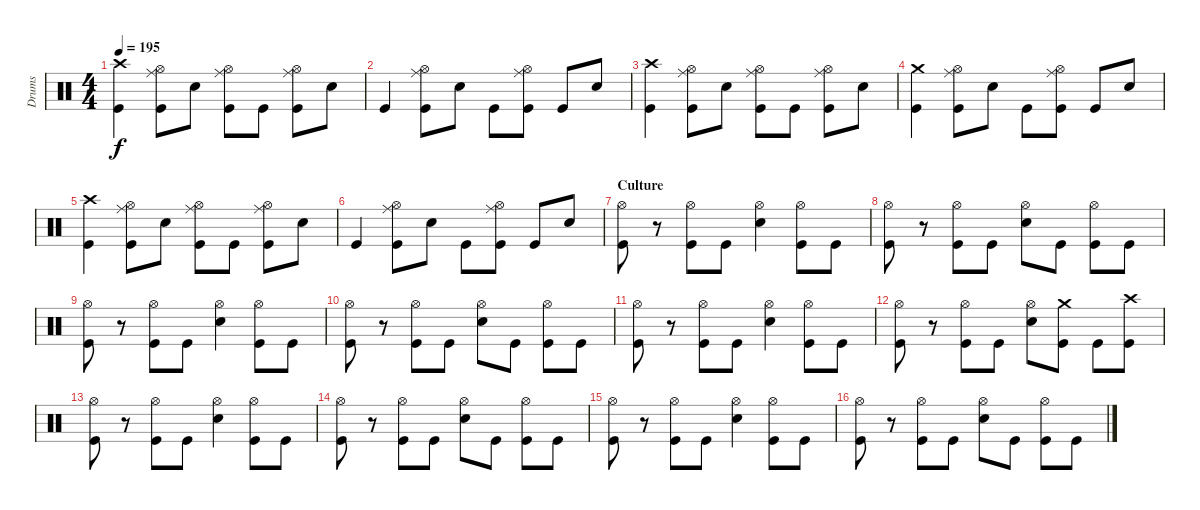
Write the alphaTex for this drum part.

\track ("Drums" "Drums") {instrument percussion}
\staff {score}
\articulation defaults
\ts (4 4)
\tempo 195
\clef neutral
\ks c
("Crash high (hit)" "Kick (hit)").4{dy f} ("Hi-Hat (open)" "Ride (middle)" "Kick (hit)").8 "Electric Snare (hit)".8 ("Hi-Hat (open)" "Ride (middle)" "Kick (hit)").8 "Kick (hit)".8 ("Hi-Hat (open)" "Ride (middle)" "Kick (hit)").8 "Electric Snare (hit)".8 |
"Kick (hit)".4 ("Hi-Hat (open)" "Ride (middle)" "Kick (hit)").8 "Electric Snare (hit)".8 "Kick (hit)".8 ("Hi-Hat (open)" "Ride (middle)" "Kick (hit)").8 "Kick (hit)".8 "Electric Snare (hit)".8 |
("Crash high (hit)" "Kick (hit)").4 ("Hi-Hat (open)" "Ride (middle)" "Kick (hit)").8 "Electric Snare (hit)".8 ("Hi-Hat (open)" "Ride (middle)" "Kick (hit)").8 "Kick (hit)".8 ("Hi-Hat (open)" "Ride (middle)" "Kick (hit)").8 "Electric Snare (hit)".8 |
("Crash medium (hit)" "Kick (hit)").4 ("Hi-Hat (open)" "Ride (middle)" "Kick (hit)").8 "Electric Snare (hit)".8 "Kick (hit)".8 ("Hi-Hat (open)" "Ride (middle)" "Kick (hit)").8 "Kick (hit)".8 "Electric Snare (hit)".8 |
("Crash high (hit)" "Kick (hit)").4 ("Hi-Hat (open)" "Ride (middle)" "Kick (hit)").8 "Electric Snare (hit)".8 ("Hi-Hat (open)" "Ride (middle)" "Kick (hit)").8 "Kick (hit)".8 ("Hi-Hat (open)" "Ride (middle)" "Kick (hit)").8 "Electric Snare (hit)".8 |
"Kick (hit)".4 ("Hi-Hat (open)" "Ride (middle)" "Kick (hit)").8 "Electric Snare (hit)".8 "Kick (hit)".8 ("Hi-Hat (open)" "Ride (middle)" "Kick (hit)").8 "Kick (hit)".8 "Electric Snare (hit)".8 |
\section ("" "Culture ")
("Hi-Hat (open)" "Kick (hit)").8 r.8 ("Hi-Hat (open)" "Kick (hit)").8 "Kick (hit)".8 ("Hi-Hat (open)" "Electric Snare (hit)").4 ("Hi-Hat (open)" "Kick (hit)").8 "Kick (hit)".8 |
("Hi-Hat (open)" "Kick (hit)").8 r.8 ("Hi-Hat (open)" "Kick (hit)").8 "Kick (hit)".8 ("Hi-Hat (open)" "Electric Snare (hit)").8 "Kick (hit)".8 ("Hi-Hat (open)" "Kick (hit)").8 "Kick (hit)".8 |
("Hi-Hat (open)" "Kick (hit)").8 r.8 ("Hi-Hat (open)" "Kick (hit)").8 "Kick (hit)".8 ("Hi-Hat (open)" "Electric Snare (hit)").4 ("Hi-Hat (open)" "Kick (hit)").8 "Kick (hit)".8 |
("Hi-Hat (open)" "Kick (hit)").8 r.8 ("Hi-Hat (open)" "Kick (hit)").8 "Kick (hit)".8 ("Hi-Hat (open)" "Electric Snare (hit)").8 "Kick (hit)".8 ("Hi-Hat (open)" "Kick (hit)").8 "Kick (hit)".8 |
("Hi-Hat (open)" "Kick (hit)").8 r.8 ("Hi-Hat (open)" "Kick (hit)").8 "Kick (hit)".8 ("Hi-Hat (open)" "Electric Snare (hit)").4 ("Hi-Hat (open)" "Kick (hit)").8 "Kick (hit)".8 |
("Hi-Hat (open)" "Kick (hit)").8 r.8 ("Hi-Hat (open)" "Kick (hit)").8 "Kick (hit)".8 ("Hi-Hat (open)" "Electric Snare (hit)").8 ("Crash medium (hit)" "Kick (hit)").8 "Kick (hit)".8 ("Crash high (hit)" "Kick (hit)").8 |
("Hi-Hat (open)" "Kick (hit)").8 r.8 ("Hi-Hat (open)" "Kick (hit)").8 "Kick (hit)".8 ("Hi-Hat (open)" "Electric Snare (hit)").4 ("Hi-Hat (open)" "Kick (hit)").8 "Kick (hit)".8 |
("Hi-Hat (open)" "Kick (hit)").8 r.8 ("Hi-Hat (open)" "Kick (hit)").8 "Kick (hit)".8 ("Hi-Hat (open)" "Electric Snare (hit)").8 "Kick (hit)".8 ("Hi-Hat (open)" "Kick (hit)").8 "Kick (hit)".8 |
("Hi-Hat (open)" "Kick (hit)").8 r.8 ("Hi-Hat (open)" "Kick (hit)").8 "Kick (hit)".8 ("Hi-Hat (open)" "Electric Snare (hit)").4 ("Hi-Hat (open)" "Kick (hit)").8 "Kick (hit)".8 |
("Hi-Hat (open)" "Kick (hit)").8 r.8 ("Hi-Hat (open)" "Kick (hit)").8 "Kick (hit)".8 ("Hi-Hat (open)" "Electric Snare (hit)").8 "Kick (hit)".8 ("Hi-Hat (open)" "Kick (hit)").8 "Kick (hit)".8
